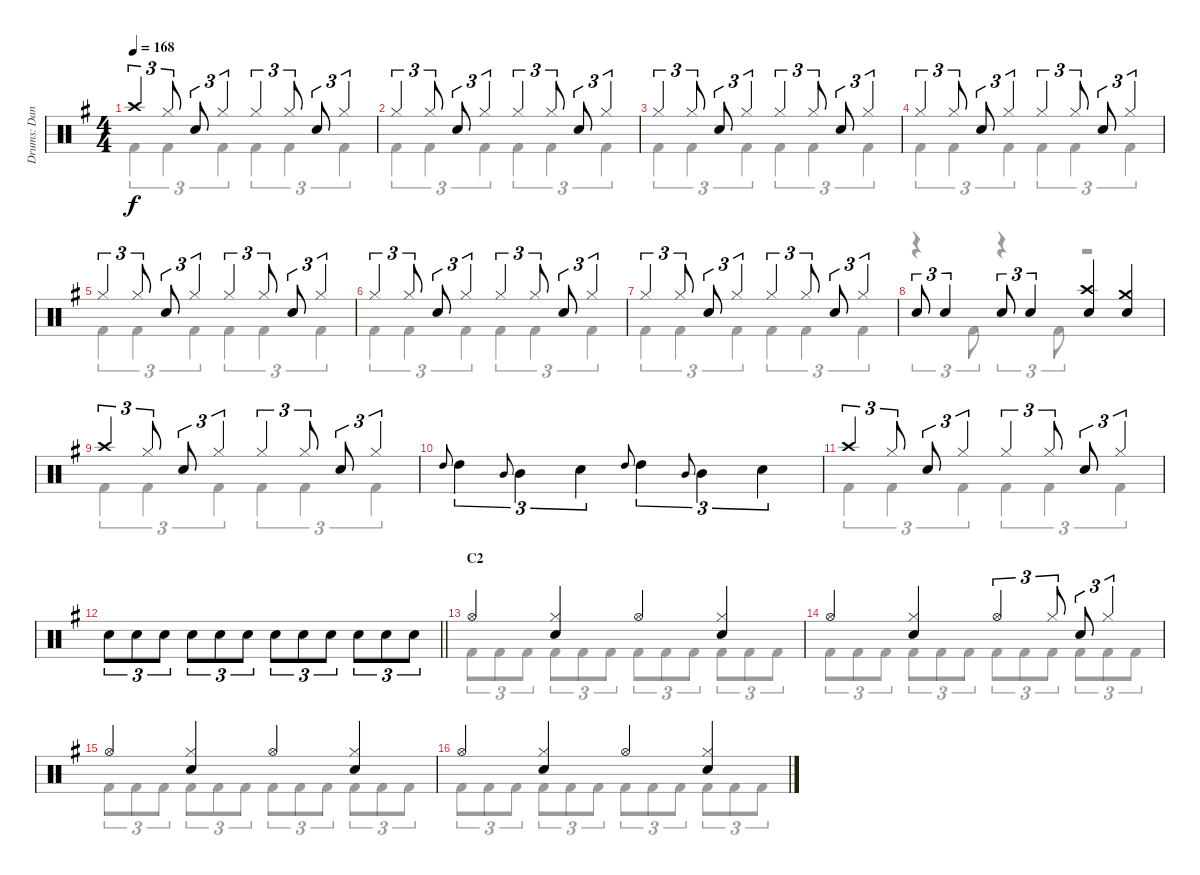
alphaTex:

\track ("Drums: Dana" "Drums: Dan") {instrument percussion}
\staff {score}
\articulation defaults
\voice
\ts (4 4)
\tempo 168
\clef neutral
\ks g "Crash high (hit)".4{tu (3 2) dy f} "Hi-Hat (closed)".8{tu (3 2)} "Snare (hit) 2".8{tu (3 2)} "Hi-Hat (closed)".4{tu (3 2)} "Hi-Hat (closed)".4{tu (3 2)} "Hi-Hat (closed)".8{tu (3 2)} "Snare (hit) 2".8{tu (3 2)} "Hi-Hat (closed)".4{tu (3 2)}
|
"Hi-Hat (closed)".4{tu (3 2)} "Hi-Hat (closed)".8{tu (3 2)} "Snare (hit) 2".8{tu (3 2)} "Hi-Hat (closed)".4{tu (3 2)} "Hi-Hat (closed)".4{tu (3 2)} "Hi-Hat (closed)".8{tu (3 2)} "Snare (hit) 2".8{tu (3 2)} "Hi-Hat (closed)".4{tu (3 2)} |
"Hi-Hat (closed)".4{tu (3 2)} "Hi-Hat (closed)".8{tu (3 2)} "Snare (hit) 2".8{tu (3 2)} "Hi-Hat (closed)".4{tu (3 2)} "Hi-Hat (closed)".4{tu (3 2)} "Hi-Hat (closed)".8{tu (3 2)} "Snare (hit) 2".8{tu (3 2)} "Hi-Hat (closed)".4{tu (3 2)} |
"Hi-Hat (closed)".4{tu (3 2)} "Hi-Hat (closed)".8{tu (3 2)} "Snare (hit) 2".8{tu (3 2)} "Hi-Hat (closed)".4{tu (3 2)} "Hi-Hat (closed)".4{tu (3 2)} "Hi-Hat (closed)".8{tu (3 2)} "Snare (hit) 2".8{tu (3 2)} "Hi-Hat (closed)".4{tu (3 2)} |
"Hi-Hat (closed)".4{tu (3 2)} "Hi-Hat (closed)".8{tu (3 2)} "Snare (hit) 2".8{tu (3 2)} "Hi-Hat (closed)".4{tu (3 2)} "Hi-Hat (closed)".4{tu (3 2)} "Hi-Hat (closed)".8{tu (3 2)} "Snare (hit) 2".8{tu (3 2)} "Hi-Hat (closed)".4{tu (3 2)} |
"Hi-Hat (closed)".4{tu (3 2)} "Hi-Hat (closed)".8{tu (3 2)} "Snare (hit) 2".8{tu (3 2)} "Hi-Hat (closed)".4{tu (3 2)} "Hi-Hat (closed)".4{tu (3 2)} "Hi-Hat (closed)".8{tu (3 2)} "Snare (hit) 2".8{tu (3 2)} "Hi-Hat (closed)".4{tu (3 2)} |
"Hi-Hat (closed)".4{tu (3 2)} "Hi-Hat (closed)".8{tu (3 2)} "Snare (hit) 2".8{tu (3 2)} "Hi-Hat (closed)".4{tu (3 2)} "Hi-Hat (closed)".4{tu (3 2)} "Hi-Hat (closed)".8{tu (3 2)} "Snare (hit) 2".8{tu (3 2)} "Hi-Hat (closed)".4{tu (3 2)} |
"Snare (hit) 2".8{tu (3 2)} "Snare (hit) 2".4{tu (3 2)} "Snare (hit) 2".8{tu (3 2)} "Snare (hit) 2".4{tu (3 2)} ("Crash high (hit)" "Snare (hit) 2").4 ("Crash medium (hit)" "Snare (hit) 2").4 |
"Crash high (hit)".4{tu (3 2)} "Hi-Hat (closed)".8{tu (3 2)} "Snare (hit) 2".8{tu (3 2)} "Hi-Hat (closed)".4{tu (3 2)} "Hi-Hat (closed)".4{tu (3 2)} "Hi-Hat (closed)".8{tu (3 2)} "Snare (hit) 2".8{tu (3 2)} "Hi-Hat (closed)".4{tu (3 2)} |
"High Tom (hit)".8{gr onbeat} "High Tom (hit)".4{tu (3 2)} "Mid Tom (hit)".8{gr onbeat} "Mid Tom (hit)".4{tu (3 2)} "Snare (hit) 2".4{tu (3 2)} "High Tom (hit)".8{gr onbeat} "High Tom (hit)".4{tu (3 2)} "Mid Tom (hit)".8{gr onbeat} "Mid Tom (hit)".4{tu (3 2)} "Snare (hit) 2".4{tu (3 2)} |
"Crash high (hit)".4{tu (3 2)} "Hi-Hat (closed)".8{tu (3 2)} "Snare (hit) 2".8{tu (3 2)} "Hi-Hat (closed)".4{tu (3 2)} "Hi-Hat (closed)".4{tu (3 2)} "Hi-Hat (closed)".8{tu (3 2)} "Snare (hit) 2".8{tu (3 2)} "Hi-Hat (closed)".4{tu (3 2)} |
\barLineRight lightlight "Snare (hit) 2".8{tu (3 2)} "Snare (hit) 2".8{tu (3 2)} "Snare (hit) 2".8{tu (3 2)} "Snare (hit) 2".8{tu (3 2)} "Snare (hit) 2".8{tu (3 2)} "Snare (hit) 2".8{tu (3 2)} "Snare (hit) 2".8{tu (3 2)} "Snare (hit) 2".8{tu (3 2)} "Snare (hit) 2".8{tu (3 2)} "Snare (hit) 2".8{tu (3 2)} "Snare (hit) 2".8{tu (3 2)} "Snare (hit) 2".8{tu (3 2)}
|
\section ("" "C2")
"Hi-Hat (open)".4 ("Hi-Hat (closed)" "Snare (hit) 2").4 "Hi-Hat (open)".4 ("Hi-Hat (closed)" "Snare (hit) 2").4 |
"Hi-Hat (open)".4 ("Hi-Hat (closed)" "Snare (hit) 2").4 "Hi-Hat (open)".4{tu (3 2)} "Hi-Hat (closed)".8{tu (3 2)} "Snare (hit) 2".8{tu (3 2)} "Hi-Hat (closed)".4{tu (3 2)} |
"Hi-Hat (open)".4 ("Hi-Hat (closed)" "Snare (hit) 2").4 "Hi-Hat (open)".4 ("Hi-Hat (closed)" "Snare (hit) 2").4 |
"Hi-Hat (open)".4 ("Hi-Hat (closed)" "Snare (hit) 2").4 "Hi-Hat (open)".4 ("Hi-Hat (closed)" "Snare (hit) 2").4
\voice
\clef neutral
\ottava regular
\simile none
\ks g "Kick (hit) 2".4{tu (3 2) dy f} "Kick (hit) 2".4{tu (3 2)} "Kick (hit) 2".4{tu (3 2)} "Kick (hit) 2".4{tu (3 2)} "Kick (hit) 2".4{tu (3 2)} "Kick (hit) 2".4{tu (3 2)}
|
"Kick (hit) 2".4{tu (3 2)} "Kick (hit) 2".4{tu (3 2)} "Kick (hit) 2".4{tu (3 2)} "Kick (hit) 2".4{tu (3 2)} "Kick (hit) 2".4{tu (3 2)} "Kick (hit) 2".4{tu (3 2)} |
"Kick (hit) 2".4{tu (3 2)} "Kick (hit) 2".4{tu (3 2)} "Kick (hit) 2".4{tu (3 2)} "Kick (hit) 2".4{tu (3 2)} "Kick (hit) 2".4{tu (3 2)} "Kick (hit) 2".4{tu (3 2)} |
"Kick (hit) 2".4{tu (3 2)} "Kick (hit) 2".4{tu (3 2)} "Kick (hit) 2".4{tu (3 2)} "Kick (hit) 2".4{tu (3 2)} "Kick (hit) 2".4{tu (3 2)} "Kick (hit) 2".4{tu (3 2)} |
"Kick (hit) 2".4{tu (3 2)} "Kick (hit) 2".4{tu (3 2)} "Kick (hit) 2".4{tu (3 2)} "Kick (hit) 2".4{tu (3 2)} "Kick (hit) 2".4{tu (3 2)} "Kick (hit) 2".4{tu (3 2)} |
"Kick (hit) 2".4{tu (3 2)} "Kick (hit) 2".4{tu (3 2)} "Kick (hit) 2".4{tu (3 2)} "Kick (hit) 2".4{tu (3 2)} "Kick (hit) 2".4{tu (3 2)} "Kick (hit) 2".4{tu (3 2)} |
"Kick (hit) 2".4{tu (3 2)} "Kick (hit) 2".4{tu (3 2)} "Kick (hit) 2".4{tu (3 2)} "Kick (hit) 2".4{tu (3 2)} "Kick (hit) 2".4{tu (3 2)} "Kick (hit) 2".4{tu (3 2)} |
r.4{tu (3 2)} "Kick (hit) 2".8{tu (3 2)} r.4{tu (3 2)} "Kick (hit) 2".8{tu (3 2)} r.2 |
"Kick (hit) 2".4{tu (3 2)} "Kick (hit) 2".4{tu (3 2)} "Kick (hit) 2".4{tu (3 2)} "Kick (hit) 2".4{tu (3 2)} "Kick (hit) 2".4{tu (3 2)} "Kick (hit) 2".4{tu (3 2)} |
|
"Kick (hit) 2".4{tu (3 2)} "Kick (hit) 2".4{tu (3 2)} "Kick (hit) 2".4{tu (3 2)} "Kick (hit) 2".4{tu (3 2)} "Kick (hit) 2".4{tu (3 2)} "Kick (hit) 2".4{tu (3 2)} |
\barLineRight lightlight
|
"Kick (hit) 2".8{tu (3 2)} "Kick (hit) 2".8{tu (3 2)} "Kick (hit) 2".8{tu (3 2)} "Kick (hit) 2".8{tu (3 2)} "Kick (hit) 2".8{tu (3 2)} "Kick (hit) 2".8{tu (3 2)} "Kick (hit) 2".8{tu (3 2)} "Kick (hit) 2".8{tu (3 2)} "Kick (hit) 2".8{tu (3 2)} "Kick (hit) 2".8{tu (3 2)} "Kick (hit) 2".8{tu (3 2)} "Kick (hit) 2".8{tu (3 2)} |
"Kick (hit) 2".8{tu (3 2)} "Kick (hit) 2".8{tu (3 2)} "Kick (hit) 2".8{tu (3 2)} "Kick (hit) 2".8{tu (3 2)} "Kick (hit) 2".8{tu (3 2)} "Kick (hit) 2".8{tu (3 2)} "Kick (hit) 2".8{tu (3 2)} "Kick (hit) 2".8{tu (3 2)} "Kick (hit) 2".8{tu (3 2)} "Kick (hit) 2".8{tu (3 2)} "Kick (hit) 2".8{tu (3 2)} "Kick (hit) 2".8{tu (3 2)} |
"Kick (hit) 2".8{tu (3 2)} "Kick (hit) 2".8{tu (3 2)} "Kick (hit) 2".8{tu (3 2)} "Kick (hit) 2".8{tu (3 2)} "Kick (hit) 2".8{tu (3 2)} "Kick (hit) 2".8{tu (3 2)} "Kick (hit) 2".8{tu (3 2)} "Kick (hit) 2".8{tu (3 2)} "Kick (hit) 2".8{tu (3 2)} "Kick (hit) 2".8{tu (3 2)} "Kick (hit) 2".8{tu (3 2)} "Kick (hit) 2".8{tu (3 2)} |
"Kick (hit) 2".8{tu (3 2)} "Kick (hit) 2".8{tu (3 2)} "Kick (hit) 2".8{tu (3 2)} "Kick (hit) 2".8{tu (3 2)} "Kick (hit) 2".8{tu (3 2)} "Kick (hit) 2".8{tu (3 2)} "Kick (hit) 2".8{tu (3 2)} "Kick (hit) 2".8{tu (3 2)} "Kick (hit) 2".8{tu (3 2)} "Kick (hit) 2".8{tu (3 2)} "Kick (hit) 2".8{tu (3 2)} "Kick (hit) 2".8{tu (3 2)}
